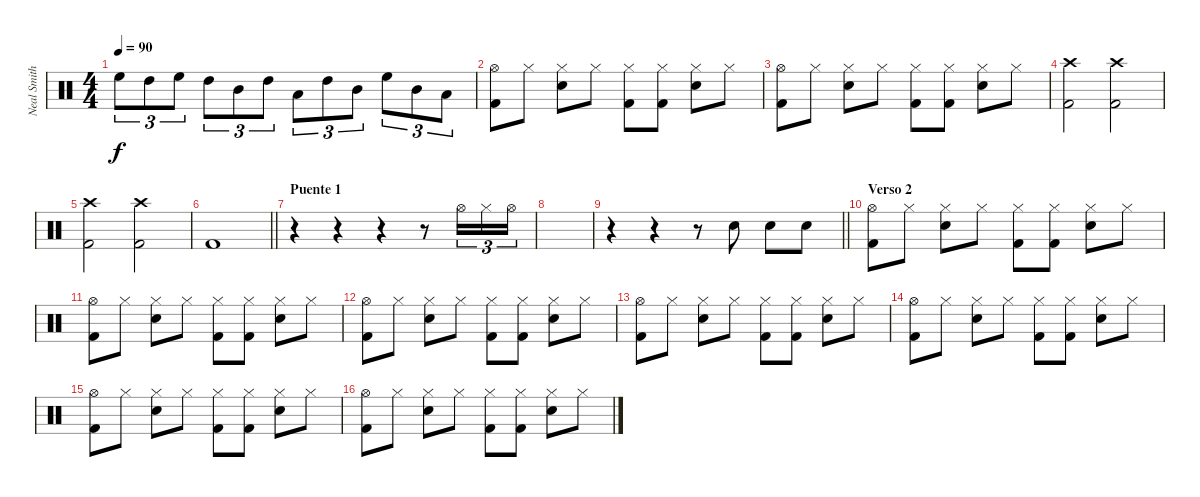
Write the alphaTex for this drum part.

\track ("Neal Smith" "Neal Smith") {instrument percussion}
\staff {score}
\articulation defaults
\ts (4 4)
\tempo 90
\clef neutral
\ks c "High Floor Tom (hit)".8{tu (3 2) dy f} "High Tom (hit)".8{tu (3 2)} "High Floor Tom (hit)".8{tu (3 2)} "High Tom (hit)".8{tu (3 2)} "Mid Tom (hit)".8{tu (3 2)} "High Tom (hit)".8{tu (3 2)} "Low Tom (hit)".8{tu (3 2)} "High Tom (hit)".8{tu (3 2)} "Mid Tom (hit)".8{tu (3 2)} "High Floor Tom (hit)".8{tu (3 2)} "Mid Tom (hit)".8{tu (3 2)} "Low Tom (hit)".8{tu (3 2)}
|
("Hi-Hat (open)" "Kick (hit) 2").8 "Hi-Hat (closed)".8 ("Hi-Hat (closed)" "Snare (hit) 2").8 "Hi-Hat (closed)".8 ("Hi-Hat (closed)" "Kick (hit) 2").8 ("Hi-Hat (closed)" "Kick (hit) 2").8 ("Hi-Hat (closed)" "Snare (hit) 2").8 "Hi-Hat (closed)".8 |
("Hi-Hat (open)" "Kick (hit) 2").8 "Hi-Hat (closed)".8 ("Hi-Hat (closed)" "Snare (hit) 2").8 "Hi-Hat (closed)".8 ("Hi-Hat (closed)" "Kick (hit) 2").8 ("Hi-Hat (closed)" "Kick (hit) 2").8 ("Hi-Hat (closed)" "Snare (hit) 2").8 "Hi-Hat (closed)".8 |
("Crash high (hit)" "Kick (hit) 2").2 ("Crash high (hit)" "Kick (hit) 2").2 |
("Crash high (hit)" "Kick (hit) 2").2 ("Crash high (hit)" "Kick (hit) 2").2 |
\barLineRight lightlight "Kick (hit) 2".1
|
\section ("" "Puente 1")
r.4 r.4 r.4 r.8 "Hi-Hat (open)".16{tu (3 2)} "Hi-Hat (closed)".16{tu (3 2)} "Hi-Hat (open)".16{tu (3 2)} |
|
\barLineRight lightlight
r.4 r.4 r.8 "Snare (hit) 2".8 "Snare (hit) 2".8 "Snare (hit) 2".8 |
\section ("" "Verso 2")
("Hi-Hat (open)" "Kick (hit) 2").8 "Hi-Hat (closed)".8 ("Hi-Hat (closed)" "Snare (hit) 2").8 "Hi-Hat (closed)".8 ("Hi-Hat (closed)" "Kick (hit) 2").8 ("Hi-Hat (closed)" "Kick (hit) 2").8 ("Hi-Hat (closed)" "Snare (hit) 2").8 "Hi-Hat (closed)".8 |
("Hi-Hat (open)" "Kick (hit) 2").8 "Hi-Hat (closed)".8 ("Hi-Hat (closed)" "Snare (hit) 2").8 "Hi-Hat (closed)".8 ("Hi-Hat (closed)" "Kick (hit) 2").8 ("Hi-Hat (closed)" "Kick (hit) 2").8 ("Hi-Hat (closed)" "Snare (hit) 2").8 "Hi-Hat (closed)".8 |
("Hi-Hat (open)" "Kick (hit) 2").8 "Hi-Hat (closed)".8 ("Hi-Hat (closed)" "Snare (hit) 2").8 "Hi-Hat (closed)".8 ("Hi-Hat (closed)" "Kick (hit) 2").8 ("Hi-Hat (closed)" "Kick (hit) 2").8 ("Hi-Hat (closed)" "Snare (hit) 2").8 "Hi-Hat (closed)".8 |
("Hi-Hat (open)" "Kick (hit) 2").8 "Hi-Hat (closed)".8 ("Hi-Hat (closed)" "Snare (hit) 2").8 "Hi-Hat (closed)".8 ("Hi-Hat (closed)" "Kick (hit) 2").8 ("Hi-Hat (closed)" "Kick (hit) 2").8 ("Hi-Hat (closed)" "Snare (hit) 2").8 "Hi-Hat (closed)".8 |
("Hi-Hat (open)" "Kick (hit) 2").8 "Hi-Hat (closed)".8 ("Hi-Hat (closed)" "Snare (hit) 2").8 "Hi-Hat (closed)".8 ("Hi-Hat (closed)" "Kick (hit) 2").8 ("Hi-Hat (closed)" "Kick (hit) 2").8 ("Hi-Hat (closed)" "Snare (hit) 2").8 "Hi-Hat (closed)".8 |
("Hi-Hat (open)" "Kick (hit) 2").8 "Hi-Hat (closed)".8 ("Hi-Hat (closed)" "Snare (hit) 2").8 "Hi-Hat (closed)".8 ("Hi-Hat (closed)" "Kick (hit) 2").8 ("Hi-Hat (closed)" "Kick (hit) 2").8 ("Hi-Hat (closed)" "Snare (hit) 2").8 "Hi-Hat (closed)".8 |
("Hi-Hat (open)" "Kick (hit) 2").8 "Hi-Hat (closed)".8 ("Hi-Hat (closed)" "Snare (hit) 2").8 "Hi-Hat (closed)".8 ("Hi-Hat (closed)" "Kick (hit) 2").8 ("Hi-Hat (closed)" "Kick (hit) 2").8 ("Hi-Hat (closed)" "Snare (hit) 2").8 "Hi-Hat (closed)".8
